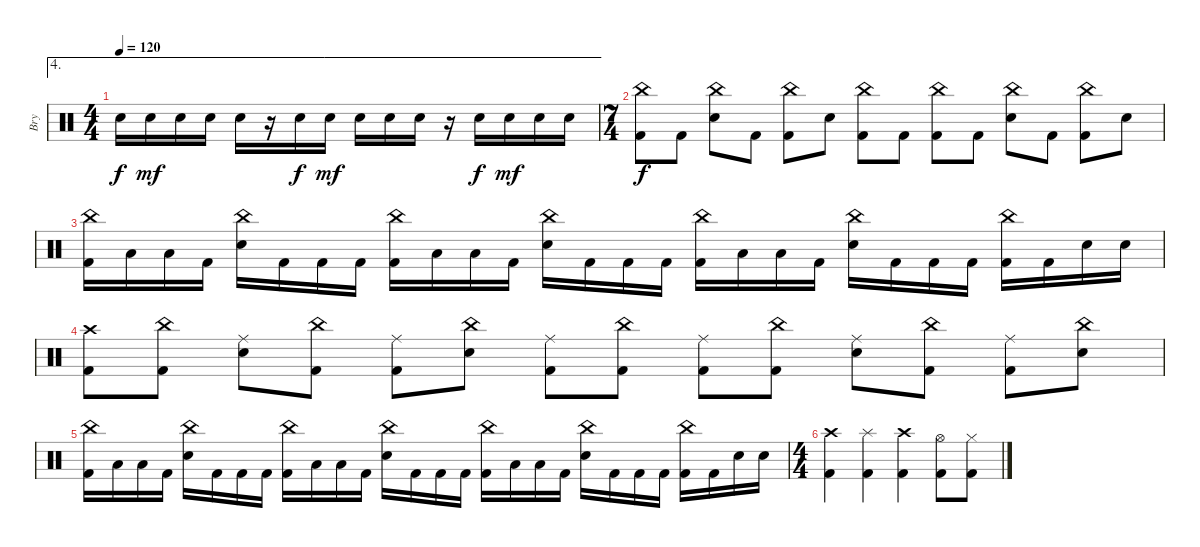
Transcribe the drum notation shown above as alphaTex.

\track ("Bry" "Bry") {instrument percussion}
\staff {score}
\articulation defaults
\ae 4
\ts (4 4)
\tempo 120
\clef neutral
\ks c "Snare (hit) 2".16{dy f} "Snare (hit) 2".16{dy mf} "Snare (hit) 2".16 "Snare (hit) 2".16 "Snare (hit) 2".16
r.16 "Snare (hit) 2".16{dy f} "Snare (hit) 2".16{dy mf} "Snare (hit) 2".16 "Snare (hit) 2".16 "Snare (hit) 2".16 r.16 "Snare (hit) 2".16{dy f} "Snare (hit) 2".16{dy mf} "Snare (hit) 2".16 "Snare (hit) 2".16 |
\ts (7 4)
("China (hit)" "Kick (hit) 2").8{dy f} "Kick (hit) 2".8 ("China (hit)" "Snare (hit) 2").8 "Kick (hit) 2".8 ("China (hit)" "Kick (hit) 2").8 "Snare (hit) 2".8 ("China (hit)" "Kick (hit) 2").8 "Kick (hit) 2".8 ("China (hit)" "Kick (hit) 2").8 "Kick (hit) 2".8 ("China (hit)" "Snare (hit) 2").8 "Kick (hit) 2".8 ("China (hit)" "Kick (hit) 2").8 "Snare (hit) 2".8 |
("China (hit)" "Kick (hit) 2").16 "Low Tom (hit)".16 "Low Floor Tom (hit)".16 "Kick (hit) 2".16 ("China (hit)" "Snare (hit) 2").16 "Kick (hit) 2".16 "Kick (hit) 2".16 "Kick (hit) 2".16 ("China (hit)" "Kick (hit) 2").16 "Low Tom (hit)".16 "Low Floor Tom (hit)".16 "Kick (hit) 2".16 ("China (hit)" "Snare (hit) 2").16 "Kick (hit) 2".16 "Kick (hit) 2".16 "Kick (hit) 2".16 ("China (hit)" "Kick (hit) 2").16 "Low Tom (hit)".16 "Low Floor Tom (hit)".16 "Kick (hit) 2".16 ("China (hit)" "Snare (hit) 2").16 "Kick (hit) 2".16 "Kick (hit) 2".16 "Kick (hit) 2".16 ("China (hit)" "Kick (hit) 2").16 "Kick (hit) 2".16 "Snare (hit) 2".16 "Snare (hit) 2".16 |
("Crash high (hit)" "Kick (hit) 2").8 ("China (hit)" "Kick (hit) 2").8 ("Ride (middle)" "Snare (hit) 2").8 ("China (hit)" "Kick (hit) 2").8 ("Ride (middle)" "Kick (hit) 2").8 ("China (hit)" "Snare (hit) 2").8 ("Ride (middle)" "Kick (hit) 2").8 ("China (hit)" "Kick (hit) 2").8 ("Ride (middle)" "Kick (hit) 2").8 ("China (hit)" "Kick (hit) 2").8 ("Ride (middle)" "Snare (hit) 2").8 ("China (hit)" "Kick (hit) 2").8 ("Ride (middle)" "Kick (hit) 2").8 ("China (hit)" "Snare (hit) 2").8 |
("China (hit)" "Kick (hit) 2").16 "Low Tom (hit)".16 "Low Floor Tom (hit)".16 "Kick (hit) 2".16 ("China (hit)" "Snare (hit) 2").16 "Kick (hit) 2".16 "Kick (hit) 2".16 "Kick (hit) 2".16 ("China (hit)" "Kick (hit) 2").16 "Low Tom (hit)".16 "Low Floor Tom (hit)".16 "Kick (hit) 2".16 ("China (hit)" "Snare (hit) 2").16 "Kick (hit) 2".16 "Kick (hit) 2".16 "Kick (hit) 2".16 ("China (hit)" "Kick (hit) 2").16 "Low Tom (hit)".16 "Low Floor Tom (hit)".16 "Kick (hit) 2".16 ("China (hit)" "Snare (hit) 2").16 "Kick (hit) 2".16 "Kick (hit) 2".16 "Kick (hit) 2".16 ("China (hit)" "Kick (hit) 2").16 "Kick (hit) 2".16 "Snare (hit) 2".16 "Snare (hit) 2".16 |
\ts (4 4)
("Crash high (hit)" "Kick (hit) 2").4 ("Splash (hit)" "Kick (hit) 2").4 ("Crash high (hit)" "Kick (hit) 2").4 ("Hi-Hat (open)" "Kick (hit) 2").8 ("Hi-Hat (closed)" "Kick (hit) 2").8
